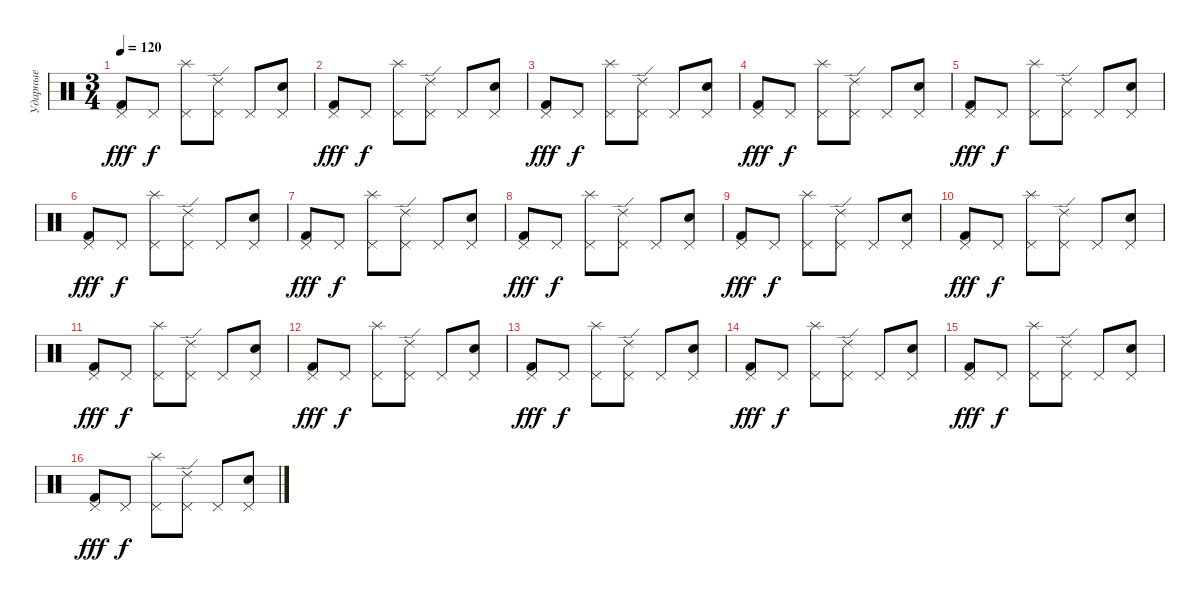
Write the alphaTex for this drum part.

\track ("Ударные" "Ударные") {instrument percussion}
\staff {score}
\articulation defaults
\ts (3 4)
\tempo 120
\clef neutral
\ks c
("Pedal Hi-Hat (hit)" "Kick (hit) 2").8{dy fff} "Pedal Hi-Hat (hit)".8{dy f} ("Pedal Hi-Hat (hit)" "Splash (hit)").8 ("Pedal Hi-Hat (hit)" "Ride (edge) 2").8 "Pedal Hi-Hat (hit)".8 ("Pedal Hi-Hat (hit)" "Snare (hit) 2").8 |
("Pedal Hi-Hat (hit)" "Kick (hit) 2").8{dy fff} "Pedal Hi-Hat (hit)".8{dy f} ("Pedal Hi-Hat (hit)" "Splash (hit)").8 ("Pedal Hi-Hat (hit)" "Ride (edge) 2").8 "Pedal Hi-Hat (hit)".8 ("Pedal Hi-Hat (hit)" "Snare (hit) 2").8 |
("Pedal Hi-Hat (hit)" "Kick (hit) 2").8{dy fff} "Pedal Hi-Hat (hit)".8{dy f} ("Pedal Hi-Hat (hit)" "Splash (hit)").8 ("Pedal Hi-Hat (hit)" "Ride (edge) 2").8 "Pedal Hi-Hat (hit)".8 ("Pedal Hi-Hat (hit)" "Snare (hit) 2").8 |
("Pedal Hi-Hat (hit)" "Kick (hit) 2").8{dy fff} "Pedal Hi-Hat (hit)".8{dy f} ("Pedal Hi-Hat (hit)" "Splash (hit)").8 ("Pedal Hi-Hat (hit)" "Ride (edge) 2").8 "Pedal Hi-Hat (hit)".8 ("Pedal Hi-Hat (hit)" "Snare (hit) 2").8 |
("Pedal Hi-Hat (hit)" "Kick (hit) 2").8{dy fff} "Pedal Hi-Hat (hit)".8{dy f} ("Pedal Hi-Hat (hit)" "Splash (hit)").8 ("Pedal Hi-Hat (hit)" "Ride (edge) 2").8 "Pedal Hi-Hat (hit)".8 ("Pedal Hi-Hat (hit)" "Snare (hit) 2").8 |
("Pedal Hi-Hat (hit)" "Kick (hit) 2").8{dy fff} "Pedal Hi-Hat (hit)".8{dy f} ("Pedal Hi-Hat (hit)" "Splash (hit)").8 ("Pedal Hi-Hat (hit)" "Ride (edge) 2").8 "Pedal Hi-Hat (hit)".8 ("Pedal Hi-Hat (hit)" "Snare (hit) 2").8 |
("Pedal Hi-Hat (hit)" "Kick (hit) 2").8{dy fff} "Pedal Hi-Hat (hit)".8{dy f} ("Pedal Hi-Hat (hit)" "Splash (hit)").8 ("Pedal Hi-Hat (hit)" "Ride (edge) 2").8 "Pedal Hi-Hat (hit)".8 ("Pedal Hi-Hat (hit)" "Snare (hit) 2").8 |
("Pedal Hi-Hat (hit)" "Kick (hit) 2").8{dy fff} "Pedal Hi-Hat (hit)".8{dy f} ("Pedal Hi-Hat (hit)" "Splash (hit)").8 ("Pedal Hi-Hat (hit)" "Ride (edge) 2").8 "Pedal Hi-Hat (hit)".8 ("Pedal Hi-Hat (hit)" "Snare (hit) 2").8 |
("Pedal Hi-Hat (hit)" "Kick (hit) 2").8{dy fff} "Pedal Hi-Hat (hit)".8{dy f} ("Pedal Hi-Hat (hit)" "Splash (hit)").8 ("Pedal Hi-Hat (hit)" "Ride (edge) 2").8 "Pedal Hi-Hat (hit)".8 ("Pedal Hi-Hat (hit)" "Snare (hit) 2").8 |
("Pedal Hi-Hat (hit)" "Kick (hit) 2").8{dy fff} "Pedal Hi-Hat (hit)".8{dy f} ("Pedal Hi-Hat (hit)" "Splash (hit)").8 ("Pedal Hi-Hat (hit)" "Ride (edge) 2").8 "Pedal Hi-Hat (hit)".8 ("Pedal Hi-Hat (hit)" "Snare (hit) 2").8 |
("Pedal Hi-Hat (hit)" "Kick (hit) 2").8{dy fff} "Pedal Hi-Hat (hit)".8{dy f} ("Pedal Hi-Hat (hit)" "Splash (hit)").8 ("Pedal Hi-Hat (hit)" "Ride (edge) 2").8 "Pedal Hi-Hat (hit)".8 ("Pedal Hi-Hat (hit)" "Snare (hit) 2").8 |
("Pedal Hi-Hat (hit)" "Kick (hit) 2").8{dy fff} "Pedal Hi-Hat (hit)".8{dy f} ("Pedal Hi-Hat (hit)" "Splash (hit)").8 ("Pedal Hi-Hat (hit)" "Ride (edge) 2").8 "Pedal Hi-Hat (hit)".8 ("Pedal Hi-Hat (hit)" "Snare (hit) 2").8 |
("Pedal Hi-Hat (hit)" "Kick (hit) 2").8{dy fff} "Pedal Hi-Hat (hit)".8{dy f} ("Pedal Hi-Hat (hit)" "Splash (hit)").8 ("Pedal Hi-Hat (hit)" "Ride (edge) 2").8 "Pedal Hi-Hat (hit)".8 ("Pedal Hi-Hat (hit)" "Snare (hit) 2").8 |
("Pedal Hi-Hat (hit)" "Kick (hit) 2").8{dy fff} "Pedal Hi-Hat (hit)".8{dy f} ("Pedal Hi-Hat (hit)" "Splash (hit)").8 ("Pedal Hi-Hat (hit)" "Ride (edge) 2").8 "Pedal Hi-Hat (hit)".8 ("Pedal Hi-Hat (hit)" "Snare (hit) 2").8 |
("Pedal Hi-Hat (hit)" "Kick (hit) 2").8{dy fff} "Pedal Hi-Hat (hit)".8{dy f} ("Pedal Hi-Hat (hit)" "Splash (hit)").8 ("Pedal Hi-Hat (hit)" "Ride (edge) 2").8 "Pedal Hi-Hat (hit)".8 ("Pedal Hi-Hat (hit)" "Snare (hit) 2").8 |
("Pedal Hi-Hat (hit)" "Kick (hit) 2").8{dy fff} "Pedal Hi-Hat (hit)".8{dy f} ("Pedal Hi-Hat (hit)" "Splash (hit)").8 ("Pedal Hi-Hat (hit)" "Ride (edge) 2").8 "Pedal Hi-Hat (hit)".8 ("Pedal Hi-Hat (hit)" "Snare (hit) 2").8
